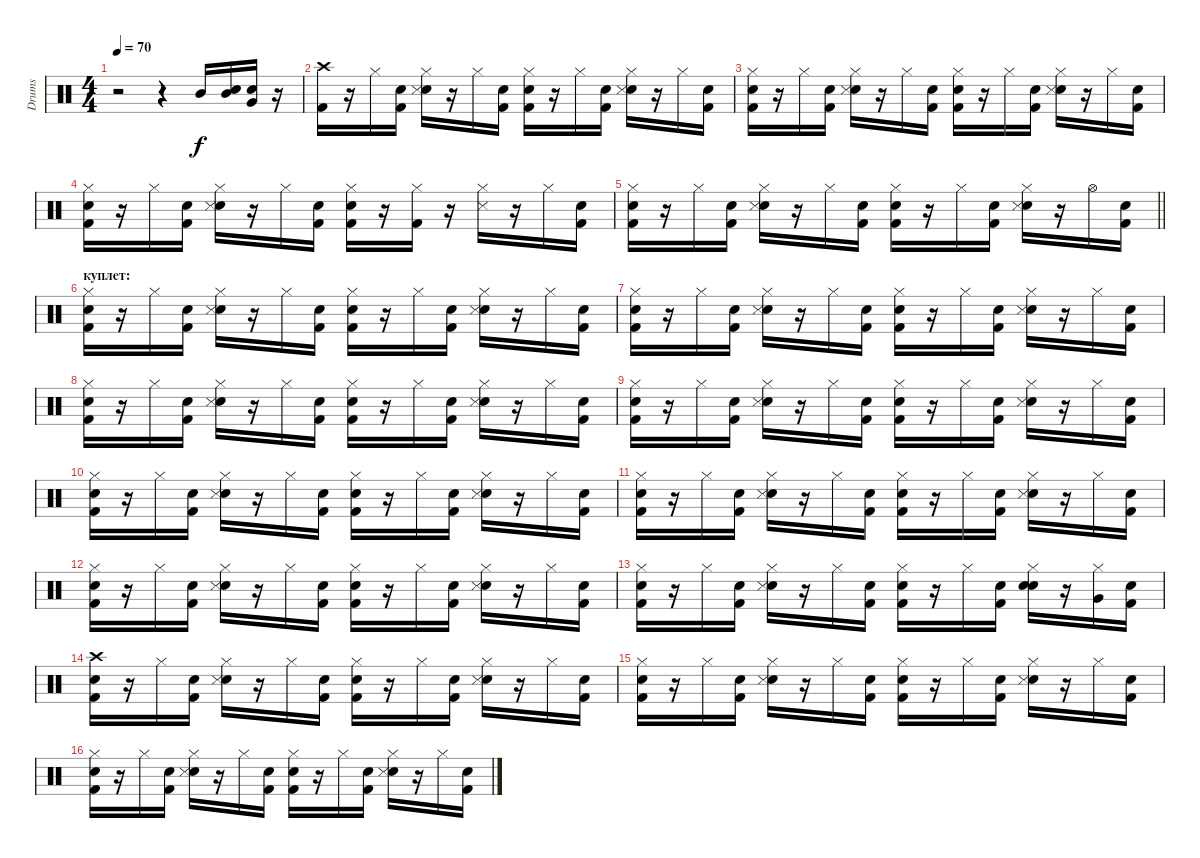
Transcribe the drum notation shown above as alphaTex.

\track ("Drums" "Drums") {instrument percussion}
\staff {score}
\articulation defaults
\ts (4 4)
\tempo 70
\clef neutral
\ks c
r.2{dy f} r.4 "Mid Tom (hit)".16 ("Snare (hit)" "Mid Tom (hit)").16 ("Snare (hit)" "Very Low Tom (hit)").16 r.16 |
("Kick (hit) 2" "Crash high (hit)").16 r.16 "Hi-Hat (closed)".16 ("Snare (hit)" "Kick (hit) 2").16 ("Snare (hit)" "Snare (side stick) 3" "Hi-Hat (closed)").16 r.16 "Hi-Hat (closed)".16 ("Snare (hit)" "Kick (hit) 2").16 ("Snare (hit)" "Kick (hit) 2" "Hi-Hat (closed)").16 r.16 "Hi-Hat (closed)".16 ("Snare (hit)" "Kick (hit) 2").16 ("Snare (hit)" "Snare (side stick) 3" "Hi-Hat (closed)").16 r.16 "Hi-Hat (closed)".16 ("Snare (hit)" "Kick (hit) 2").16 |
("Snare (hit)" "Kick (hit) 2" "Hi-Hat (closed)").16 r.16 "Hi-Hat (closed)".16 ("Snare (hit)" "Kick (hit) 2").16 ("Snare (hit)" "Snare (side stick) 3" "Hi-Hat (closed)").16 r.16 "Hi-Hat (closed)".16 ("Snare (hit)" "Kick (hit) 2").16 ("Snare (hit)" "Kick (hit) 2" "Hi-Hat (closed)").16 r.16 "Hi-Hat (closed)".16 ("Snare (hit)" "Kick (hit) 2").16 ("Snare (hit)" "Snare (side stick) 3" "Hi-Hat (closed)").16 r.16 "Hi-Hat (closed)".16 ("Snare (hit)" "Kick (hit) 2").16 |
("Snare (hit)" "Kick (hit) 2" "Hi-Hat (closed)").16 r.16 "Hi-Hat (closed)".16 ("Snare (hit)" "Kick (hit) 2").16 ("Snare (hit)" "Snare (side stick) 3" "Hi-Hat (closed)").16 r.16 "Hi-Hat (closed)".16 ("Snare (hit)" "Kick (hit) 2").16 ("Snare (hit)" "Kick (hit) 2" "Hi-Hat (closed)").16 r.16 ("Kick (hit) 2" "Hi-Hat (closed)").16 r.16 ("Snare (side stick) 3" "Hi-Hat (closed)").16 r.16 "Hi-Hat (closed)".16 ("Snare (hit)" "Kick (hit) 2").16 |
\barLineRight lightlight
("Snare (hit)" "Kick (hit) 2" "Hi-Hat (closed)").16 r.16 "Hi-Hat (closed)".16 ("Snare (hit)" "Kick (hit) 2").16 ("Snare (hit)" "Snare (side stick) 3" "Hi-Hat (closed)").16 r.16 "Hi-Hat (closed)".16 ("Snare (hit)" "Kick (hit) 2").16 ("Snare (hit)" "Kick (hit) 2" "Hi-Hat (closed)").16 r.16 "Hi-Hat (closed)".16 ("Snare (hit)" "Kick (hit) 2").16 ("Snare (hit)" "Snare (side stick) 3" "Hi-Hat (closed)").16 r.16 "Hi-Hat (open)".16 ("Snare (hit)" "Kick (hit) 2").16 |
\section ("" "куплет:")
("Snare (hit)" "Kick (hit) 2" "Hi-Hat (closed)").16 r.16 "Hi-Hat (closed)".16 ("Snare (hit)" "Kick (hit) 2").16 ("Snare (hit)" "Snare (side stick) 3" "Hi-Hat (closed)").16 r.16 "Hi-Hat (closed)".16 ("Snare (hit)" "Kick (hit) 2").16 ("Snare (hit)" "Kick (hit) 2" "Hi-Hat (closed)").16 r.16 "Hi-Hat (closed)".16 ("Snare (hit)" "Kick (hit) 2").16 ("Snare (hit)" "Snare (side stick) 3" "Hi-Hat (closed)").16 r.16 "Hi-Hat (closed)".16 ("Snare (hit)" "Kick (hit) 2").16 |
("Snare (hit)" "Kick (hit) 2" "Hi-Hat (closed)").16 r.16 "Hi-Hat (closed)".16 ("Snare (hit)" "Kick (hit) 2").16 ("Snare (hit)" "Snare (side stick) 3" "Hi-Hat (closed)").16 r.16 "Hi-Hat (closed)".16 ("Snare (hit)" "Kick (hit) 2").16 ("Snare (hit)" "Kick (hit) 2" "Hi-Hat (closed)").16 r.16 "Hi-Hat (closed)".16 ("Snare (hit)" "Kick (hit) 2").16 ("Snare (hit)" "Snare (side stick) 3" "Hi-Hat (closed)").16 r.16 "Hi-Hat (closed)".16 ("Snare (hit)" "Kick (hit) 2").16 |
("Snare (hit)" "Kick (hit) 2" "Hi-Hat (closed)").16 r.16 "Hi-Hat (closed)".16 ("Snare (hit)" "Kick (hit) 2").16 ("Snare (hit)" "Snare (side stick) 3" "Hi-Hat (closed)").16 r.16 "Hi-Hat (closed)".16 ("Snare (hit)" "Kick (hit) 2").16 ("Snare (hit)" "Kick (hit) 2" "Hi-Hat (closed)").16 r.16 "Hi-Hat (closed)".16 ("Snare (hit)" "Kick (hit) 2").16 ("Snare (hit)" "Snare (side stick) 3" "Hi-Hat (closed)").16 r.16 "Hi-Hat (closed)".16 ("Snare (hit)" "Kick (hit) 2").16 |
("Snare (hit)" "Kick (hit) 2" "Hi-Hat (closed)").16 r.16 "Hi-Hat (closed)".16 ("Snare (hit)" "Kick (hit) 2").16 ("Snare (hit)" "Snare (side stick) 3" "Hi-Hat (closed)").16 r.16 "Hi-Hat (closed)".16 ("Snare (hit)" "Kick (hit) 2").16 ("Snare (hit)" "Kick (hit) 2" "Hi-Hat (closed)").16 r.16 "Hi-Hat (closed)".16 ("Snare (hit)" "Kick (hit) 2").16 ("Snare (hit)" "Snare (side stick) 3" "Hi-Hat (closed)").16 r.16 "Hi-Hat (closed)".16 ("Snare (hit)" "Kick (hit) 2").16 |
("Snare (hit)" "Kick (hit) 2" "Hi-Hat (closed)").16 r.16 "Hi-Hat (closed)".16 ("Snare (hit)" "Kick (hit) 2").16 ("Snare (hit)" "Snare (side stick) 3" "Hi-Hat (closed)").16 r.16 "Hi-Hat (closed)".16 ("Snare (hit)" "Kick (hit) 2").16 ("Snare (hit)" "Kick (hit) 2" "Hi-Hat (closed)").16 r.16 "Hi-Hat (closed)".16 ("Snare (hit)" "Kick (hit) 2").16 ("Snare (hit)" "Snare (side stick) 3" "Hi-Hat (closed)").16 r.16 "Hi-Hat (closed)".16 ("Snare (hit)" "Kick (hit) 2").16 |
("Snare (hit)" "Kick (hit) 2" "Hi-Hat (closed)").16 r.16 "Hi-Hat (closed)".16 ("Snare (hit)" "Kick (hit) 2").16 ("Snare (hit)" "Snare (side stick) 3" "Hi-Hat (closed)").16 r.16 "Hi-Hat (closed)".16 ("Snare (hit)" "Kick (hit) 2").16 ("Snare (hit)" "Kick (hit) 2" "Hi-Hat (closed)").16 r.16 "Hi-Hat (closed)".16 ("Snare (hit)" "Kick (hit) 2").16 ("Snare (hit)" "Snare (side stick) 3" "Hi-Hat (closed)").16 r.16 "Hi-Hat (closed)".16 ("Snare (hit)" "Kick (hit) 2").16 |
("Snare (hit)" "Kick (hit) 2" "Hi-Hat (closed)").16 r.16 "Hi-Hat (closed)".16 ("Snare (hit)" "Kick (hit) 2").16 ("Snare (hit)" "Snare (side stick) 3" "Hi-Hat (closed)").16 r.16 "Hi-Hat (closed)".16 ("Snare (hit)" "Kick (hit) 2").16 ("Snare (hit)" "Kick (hit) 2" "Hi-Hat (closed)").16 r.16 "Hi-Hat (closed)".16 ("Snare (hit)" "Kick (hit) 2").16 ("Snare (hit)" "Snare (side stick) 3" "Hi-Hat (closed)").16 r.16 "Hi-Hat (closed)".16 ("Snare (hit)" "Kick (hit) 2").16 |
("Snare (hit)" "Kick (hit) 2" "Hi-Hat (closed)").16 r.16 "Hi-Hat (closed)".16 ("Snare (hit)" "Kick (hit) 2").16 ("Snare (hit)" "Snare (side stick) 3" "Hi-Hat (closed)").16 r.16 "Hi-Hat (closed)".16 ("Snare (hit)" "Kick (hit) 2").16 ("Snare (hit)" "Kick (hit) 2" "Hi-Hat (closed)").16 r.16 "Hi-Hat (closed)".16 ("Snare (hit)" "Kick (hit) 2").16 ("Snare (hit)" "Snare (hit) 2" "Hi-Hat (closed)").16 r.16 ("Hi-Hat (closed)" "Very Low Tom (hit)").16 ("Snare (hit)" "Kick (hit) 2").16 |
("Snare (hit)" "Kick (hit) 2" "Crash high (hit)").16 r.16 "Hi-Hat (closed)".16 ("Snare (hit)" "Kick (hit) 2").16 ("Snare (hit)" "Snare (side stick) 3" "Hi-Hat (closed)").16 r.16 "Hi-Hat (closed)".16 ("Snare (hit)" "Kick (hit) 2").16 ("Snare (hit)" "Kick (hit) 2" "Hi-Hat (closed)").16 r.16 "Hi-Hat (closed)".16 ("Snare (hit)" "Kick (hit) 2").16 ("Snare (hit)" "Snare (side stick) 3" "Hi-Hat (closed)").16 r.16 "Hi-Hat (closed)".16 ("Snare (hit)" "Kick (hit) 2").16 |
("Snare (hit)" "Kick (hit) 2" "Hi-Hat (closed)").16 r.16 "Hi-Hat (closed)".16 ("Snare (hit)" "Kick (hit) 2").16 ("Snare (hit)" "Snare (side stick) 3" "Hi-Hat (closed)").16 r.16 "Hi-Hat (closed)".16 ("Snare (hit)" "Kick (hit) 2").16 ("Snare (hit)" "Kick (hit) 2" "Hi-Hat (closed)").16 r.16 "Hi-Hat (closed)".16 ("Snare (hit)" "Kick (hit) 2").16 ("Snare (hit)" "Snare (side stick) 3" "Hi-Hat (closed)").16 r.16 "Hi-Hat (closed)".16 ("Snare (hit)" "Kick (hit) 2").16 |
("Snare (hit)" "Kick (hit) 2" "Hi-Hat (closed)").16 r.16 "Hi-Hat (closed)".16 ("Snare (hit)" "Kick (hit) 2").16 ("Snare (hit)" "Snare (side stick) 3" "Hi-Hat (closed)").16 r.16 "Hi-Hat (closed)".16 ("Snare (hit)" "Kick (hit) 2").16 ("Snare (hit)" "Kick (hit) 2" "Hi-Hat (closed)").16 r.16 "Hi-Hat (closed)".16 ("Snare (hit)" "Kick (hit) 2").16 ("Snare (hit)" "Snare (side stick) 3" "Hi-Hat (closed)").16 r.16 "Hi-Hat (closed)".16 ("Snare (hit)" "Kick (hit) 2").16
